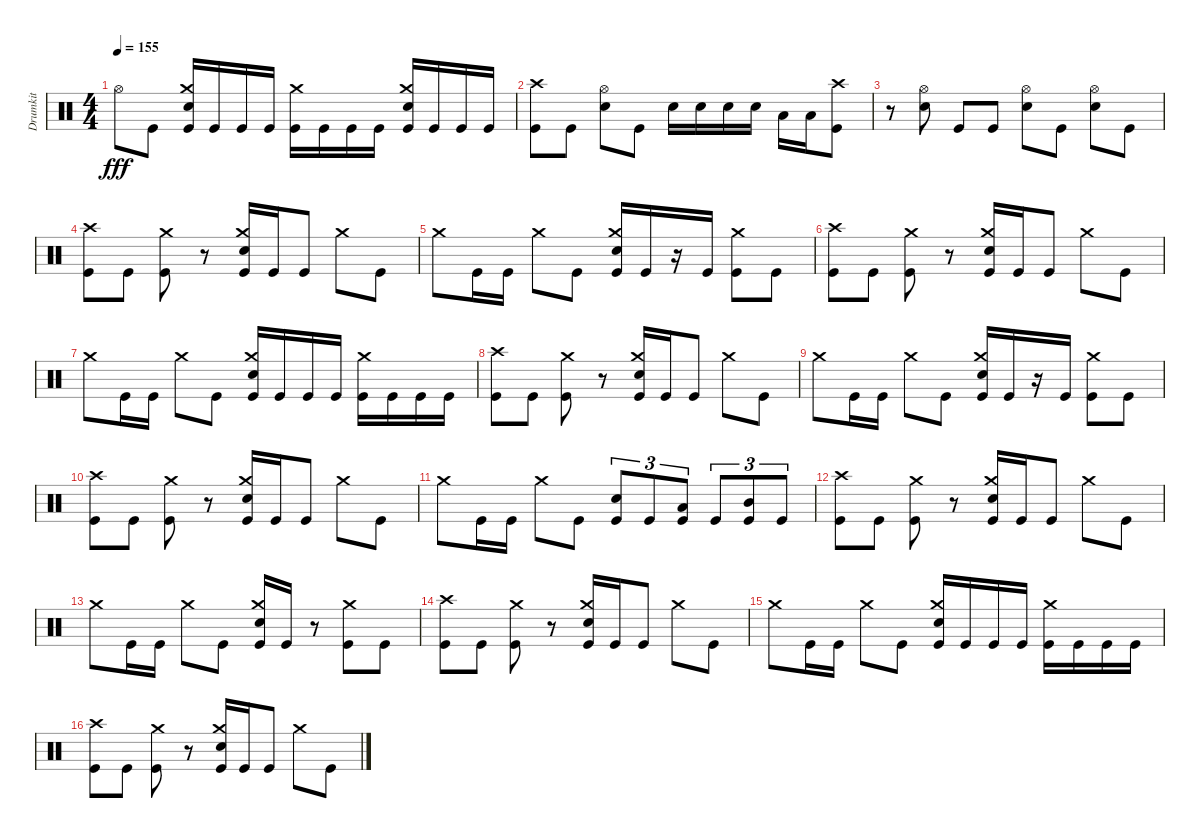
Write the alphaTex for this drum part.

\track ("Drumkit" "Drumkit") {instrument percussion}
\staff {score}
\articulation defaults
\ts (4 4)
\tempo 155
\clef neutral
\ks c "Hi-Hat (open)".8{dy fff} "Kick (hit)".8
("Crash medium (hit)" "Snare (hit) 2" "Kick (hit)").16 "Kick (hit)".16 "Kick (hit)".16 "Kick (hit)".16 ("Crash medium (hit)" "Kick (hit)").16 "Kick (hit)".16 "Kick (hit)".16 "Kick (hit)".16 ("Crash medium (hit)" "Snare (hit) 2" "Kick (hit)").16 "Kick (hit)".16 "Kick (hit)".16 "Kick (hit)".16 |
("Crash high (hit)" "Kick (hit)").8 "Kick (hit)".8 ("Hi-Hat (open)" "Snare (hit) 2").8 "Kick (hit)".8 "Snare (hit) 2".16 "Snare (hit) 2".16 "Snare (hit) 2".16 "Snare (hit) 2".16 "Low Tom (hit)".16 "Low Tom (hit)".16 ("Crash high (hit)" "Kick (hit)").8 |
r.8 ("Hi-Hat (open)" "Snare (hit) 2").8 "Kick (hit)".8 "Kick (hit)".8 ("Hi-Hat (open)" "Snare (hit) 2").8 "Kick (hit)".8 ("Hi-Hat (open)" "Snare (hit) 2").8 "Kick (hit)".8 |
("Crash high (hit)" "Kick (hit)").8 "Kick (hit)".8 ("Crash medium (hit)" "Kick (hit)").8 r.8 ("Crash medium (hit)" "Snare (hit) 2" "Kick (hit)").16 "Kick (hit)".16 "Kick (hit)".8 "Crash medium (hit)".8 "Kick (hit)".8 |
"Crash medium (hit)".8 "Kick (hit)".16 "Kick (hit)".16 "Crash medium (hit)".8 "Kick (hit)".8 ("Crash medium (hit)" "Snare (hit) 2" "Kick (hit)").16 "Kick (hit)".16 r.16 "Kick (hit)".16 ("Crash medium (hit)" "Kick (hit)").8 "Kick (hit)".8 |
("Crash high (hit)" "Kick (hit)").8 "Kick (hit)".8 ("Crash medium (hit)" "Kick (hit)").8 r.8 ("Crash medium (hit)" "Snare (hit) 2" "Kick (hit)").16 "Kick (hit)".16 "Kick (hit)".8 "Crash medium (hit)".8 "Kick (hit)".8 |
"Crash medium (hit)".8 "Kick (hit)".16 "Kick (hit)".16 "Crash medium (hit)".8 "Kick (hit)".8 ("Crash medium (hit)" "Snare (hit) 2" "Kick (hit)").16 "Kick (hit)".16 "Kick (hit)".16 "Kick (hit)".16 ("Crash medium (hit)" "Kick (hit)").16 "Kick (hit)".16 "Kick (hit)".16 "Kick (hit)".16 |
("Crash high (hit)" "Kick (hit)").8 "Kick (hit)".8 ("Crash medium (hit)" "Kick (hit)").8 r.8 ("Crash medium (hit)" "Snare (hit) 2" "Kick (hit)").16 "Kick (hit)".16 "Kick (hit)".8 "Crash medium (hit)".8 "Kick (hit)".8 |
"Crash medium (hit)".8 "Kick (hit)".16 "Kick (hit)".16 "Crash medium (hit)".8 "Kick (hit)".8 ("Crash medium (hit)" "Snare (hit) 2" "Kick (hit)").16 "Kick (hit)".16 r.16 "Kick (hit)".16 ("Crash medium (hit)" "Kick (hit)").8 "Kick (hit)".8 |
("Crash high (hit)" "Kick (hit)").8 "Kick (hit)".8 ("Crash medium (hit)" "Kick (hit)").8 r.8 ("Crash medium (hit)" "Snare (hit) 2" "Kick (hit)").16 "Kick (hit)".16 "Kick (hit)".8 "Crash medium (hit)".8 "Kick (hit)".8 |
"Crash medium (hit)".8 "Kick (hit)".16 "Kick (hit)".16 "Crash medium (hit)".8 "Kick (hit)".8 ("Snare (hit) 2" "Kick (hit)").8{tu (3 2)} "Kick (hit)".8{tu (3 2)} ("Low Tom (hit)" "Kick (hit)").8{tu (3 2)} "Kick (hit)".8{tu (3 2)} ("Mid Tom (hit)" "Kick (hit)").8{tu (3 2)} "Kick (hit)".8{tu (3 2)} |
("Crash high (hit)" "Kick (hit)").8 "Kick (hit)".8 ("Crash medium (hit)" "Kick (hit)").8 r.8 ("Crash medium (hit)" "Snare (hit) 2" "Kick (hit)").16 "Kick (hit)".16 "Kick (hit)".8 "Crash medium (hit)".8 "Kick (hit)".8 |
"Crash medium (hit)".8 "Kick (hit)".16 "Kick (hit)".16 "Crash medium (hit)".8 "Kick (hit)".8 ("Crash medium (hit)" "Snare (hit) 2" "Kick (hit)").16 "Kick (hit)".16 r.8 ("Crash medium (hit)" "Kick (hit)").8 "Kick (hit)".8 |
("Crash high (hit)" "Kick (hit)").8 "Kick (hit)".8 ("Crash medium (hit)" "Kick (hit)").8 r.8 ("Crash medium (hit)" "Snare (hit) 2" "Kick (hit)").16 "Kick (hit)".16 "Kick (hit)".8 "Crash medium (hit)".8 "Kick (hit)".8 |
"Crash medium (hit)".8 "Kick (hit)".16 "Kick (hit)".16 "Crash medium (hit)".8 "Kick (hit)".8 ("Crash medium (hit)" "Snare (hit) 2" "Kick (hit)").16 "Kick (hit)".16 "Kick (hit)".16 "Kick (hit)".16 ("Crash medium (hit)" "Kick (hit)").16 "Kick (hit)".16 "Kick (hit)".16 "Kick (hit)".16 |
("Crash high (hit)" "Kick (hit)").8 "Kick (hit)".8 ("Crash medium (hit)" "Kick (hit)").8 r.8 ("Crash medium (hit)" "Snare (hit) 2" "Kick (hit)").16 "Kick (hit)".16 "Kick (hit)".8 "Crash medium (hit)".8 "Kick (hit)".8
